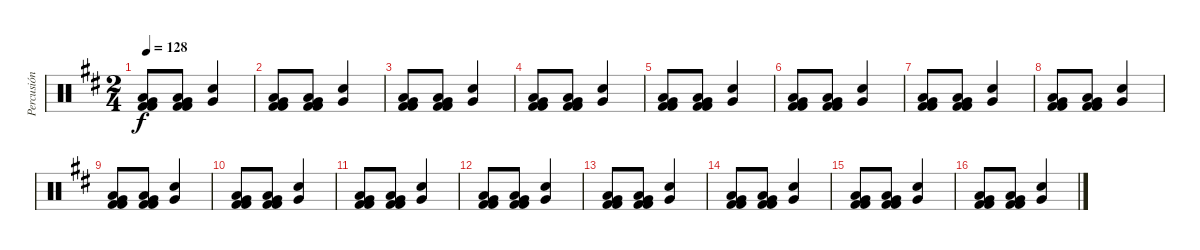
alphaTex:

\track ("Percusión" "Percusión") {instrument percussion}
\staff {score}
\articulation defaults
\ts (2 4)
\tempo 128
\clef neutral
\ks d
("Kick (hit) 2" "Low Floor Tom (hit)" "Kick (hit) 2" "Very Low Tom (hit)").8{dy f} ("Kick (hit) 2" "Low Floor Tom (hit)" "Kick (hit) 2" "Very Low Tom (hit)").8 ("Electric Snare (hit)" "Very Low Tom (hit)").4 |
("Kick (hit) 2" "Low Floor Tom (hit)" "Kick (hit) 2" "Very Low Tom (hit)").8 ("Kick (hit) 2" "Low Floor Tom (hit)" "Kick (hit) 2" "Very Low Tom (hit)").8 ("Electric Snare (hit)" "Very Low Tom (hit)").4 |
("Kick (hit) 2" "Low Floor Tom (hit)" "Kick (hit) 2" "Very Low Tom (hit)").8 ("Kick (hit) 2" "Low Floor Tom (hit)" "Kick (hit) 2" "Very Low Tom (hit)").8 ("Electric Snare (hit)" "Very Low Tom (hit)").4 |
("Kick (hit) 2" "Low Floor Tom (hit)" "Kick (hit) 2" "Very Low Tom (hit)").8 ("Kick (hit) 2" "Low Floor Tom (hit)" "Kick (hit) 2" "Very Low Tom (hit)").8 ("Electric Snare (hit)" "Very Low Tom (hit)").4 |
("Kick (hit) 2" "Low Floor Tom (hit)" "Kick (hit) 2" "Very Low Tom (hit)").8 ("Kick (hit) 2" "Low Floor Tom (hit)" "Kick (hit) 2" "Very Low Tom (hit)").8 ("Electric Snare (hit)" "Very Low Tom (hit)").4 |
("Kick (hit) 2" "Low Floor Tom (hit)" "Kick (hit) 2" "Very Low Tom (hit)").8 ("Kick (hit) 2" "Low Floor Tom (hit)" "Kick (hit) 2" "Very Low Tom (hit)").8 ("Electric Snare (hit)" "Very Low Tom (hit)").4 |
("Kick (hit) 2" "Low Floor Tom (hit)" "Kick (hit) 2" "Very Low Tom (hit)").8 ("Kick (hit) 2" "Low Floor Tom (hit)" "Kick (hit) 2" "Very Low Tom (hit)").8 ("Electric Snare (hit)" "Very Low Tom (hit)").4 |
("Kick (hit) 2" "Low Floor Tom (hit)" "Kick (hit) 2" "Very Low Tom (hit)").8 ("Kick (hit) 2" "Low Floor Tom (hit)" "Kick (hit) 2" "Very Low Tom (hit)").8 ("Electric Snare (hit)" "Very Low Tom (hit)").4 |
("Kick (hit) 2" "Low Floor Tom (hit)" "Kick (hit) 2" "Very Low Tom (hit)").8 ("Kick (hit) 2" "Low Floor Tom (hit)" "Kick (hit) 2" "Very Low Tom (hit)").8 ("Electric Snare (hit)" "Very Low Tom (hit)").4 |
("Kick (hit) 2" "Low Floor Tom (hit)" "Kick (hit) 2" "Very Low Tom (hit)").8 ("Kick (hit) 2" "Low Floor Tom (hit)" "Kick (hit) 2" "Very Low Tom (hit)").8 ("Electric Snare (hit)" "Very Low Tom (hit)").4 |
("Kick (hit) 2" "Low Floor Tom (hit)" "Kick (hit) 2" "Very Low Tom (hit)").8 ("Kick (hit) 2" "Low Floor Tom (hit)" "Kick (hit) 2" "Very Low Tom (hit)").8 ("Electric Snare (hit)" "Very Low Tom (hit)").4 |
("Kick (hit) 2" "Low Floor Tom (hit)" "Kick (hit) 2" "Very Low Tom (hit)").8 ("Kick (hit) 2" "Low Floor Tom (hit)" "Kick (hit) 2" "Very Low Tom (hit)").8 ("Electric Snare (hit)" "Very Low Tom (hit)").4 |
("Kick (hit) 2" "Low Floor Tom (hit)" "Kick (hit) 2" "Very Low Tom (hit)").8 ("Kick (hit) 2" "Low Floor Tom (hit)" "Kick (hit) 2" "Very Low Tom (hit)").8 ("Electric Snare (hit)" "Very Low Tom (hit)").4 |
("Kick (hit) 2" "Low Floor Tom (hit)" "Kick (hit) 2" "Very Low Tom (hit)").8 ("Kick (hit) 2" "Low Floor Tom (hit)" "Kick (hit) 2" "Very Low Tom (hit)").8 ("Electric Snare (hit)" "Very Low Tom (hit)").4 |
("Kick (hit) 2" "Low Floor Tom (hit)" "Kick (hit) 2" "Very Low Tom (hit)").8 ("Kick (hit) 2" "Low Floor Tom (hit)" "Kick (hit) 2" "Very Low Tom (hit)").8 ("Electric Snare (hit)" "Very Low Tom (hit)").4 |
("Kick (hit) 2" "Low Floor Tom (hit)" "Kick (hit) 2" "Very Low Tom (hit)").8 ("Kick (hit) 2" "Low Floor Tom (hit)" "Kick (hit) 2" "Very Low Tom (hit)").8 ("Electric Snare (hit)" "Very Low Tom (hit)").4
